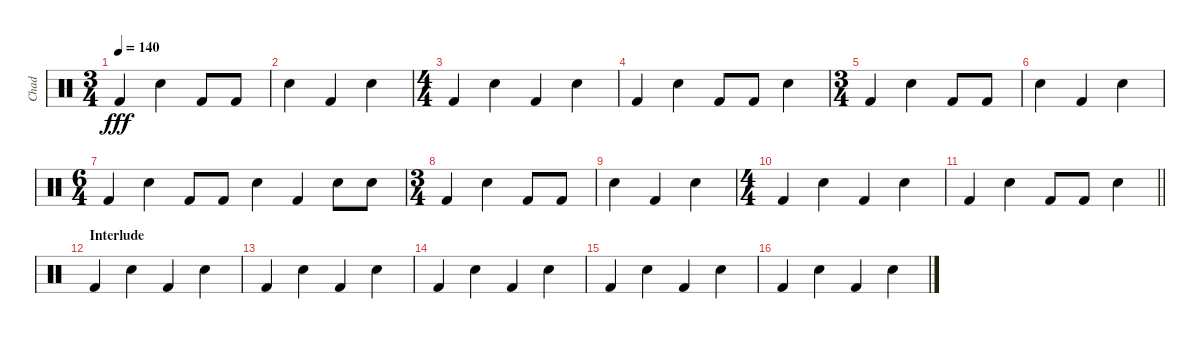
\track ("Chad" "Chad") {instrument percussion}
\staff {score}
\articulation defaults
\ts (3 4)
\tempo 140
\clef neutral
\ks c "Kick (hit) 2".4{dy fff} "Electric Snare (hit)".4 "Kick (hit) 2".8 "Kick (hit) 2".8
|
"Electric Snare (hit)".4 "Kick (hit) 2".4 "Electric Snare (hit)".4 |
\ts (4 4)
"Kick (hit) 2".4 "Electric Snare (hit)".4 "Kick (hit) 2".4 "Electric Snare (hit)".4 |
"Kick (hit) 2".4 "Electric Snare (hit)".4 "Kick (hit) 2".8 "Kick (hit) 2".8 "Electric Snare (hit)".4 |
\ts (3 4)
"Kick (hit) 2".4 "Electric Snare (hit)".4 "Kick (hit) 2".8 "Kick (hit) 2".8 |
"Electric Snare (hit)".4 "Kick (hit) 2".4 "Electric Snare (hit)".4 |
\ts (6 4)
"Kick (hit) 2".4 "Electric Snare (hit)".4 "Kick (hit) 2".8 "Kick (hit) 2".8 "Electric Snare (hit)".4 "Kick (hit) 2".4 "Electric Snare (hit)".8 "Electric Snare (hit)".8 |
\ts (3 4)
"Kick (hit) 2".4 "Electric Snare (hit)".4 "Kick (hit) 2".8 "Kick (hit) 2".8 |
"Electric Snare (hit)".4 "Kick (hit) 2".4 "Electric Snare (hit)".4 |
\ts (4 4)
"Kick (hit) 2".4 "Electric Snare (hit)".4 "Kick (hit) 2".4 "Electric Snare (hit)".4 |
\barLineRight lightlight "Kick (hit) 2".4 "Electric Snare (hit)".4 "Kick (hit) 2".8 "Kick (hit) 2".8 "Electric Snare (hit)".4
|
\section ("" "Interlude")
"Kick (hit) 2".4 "Electric Snare (hit)".4 "Kick (hit) 2".4 "Electric Snare (hit)".4 |
"Kick (hit) 2".4 "Electric Snare (hit)".4 "Kick (hit) 2".4 "Electric Snare (hit)".4 |
"Kick (hit) 2".4 "Electric Snare (hit)".4 "Kick (hit) 2".4 "Electric Snare (hit)".4 |
"Kick (hit) 2".4 "Electric Snare (hit)".4 "Kick (hit) 2".4 "Electric Snare (hit)".4 |
"Kick (hit) 2".4 "Electric Snare (hit)".4 "Kick (hit) 2".4 "Electric Snare (hit)".4
